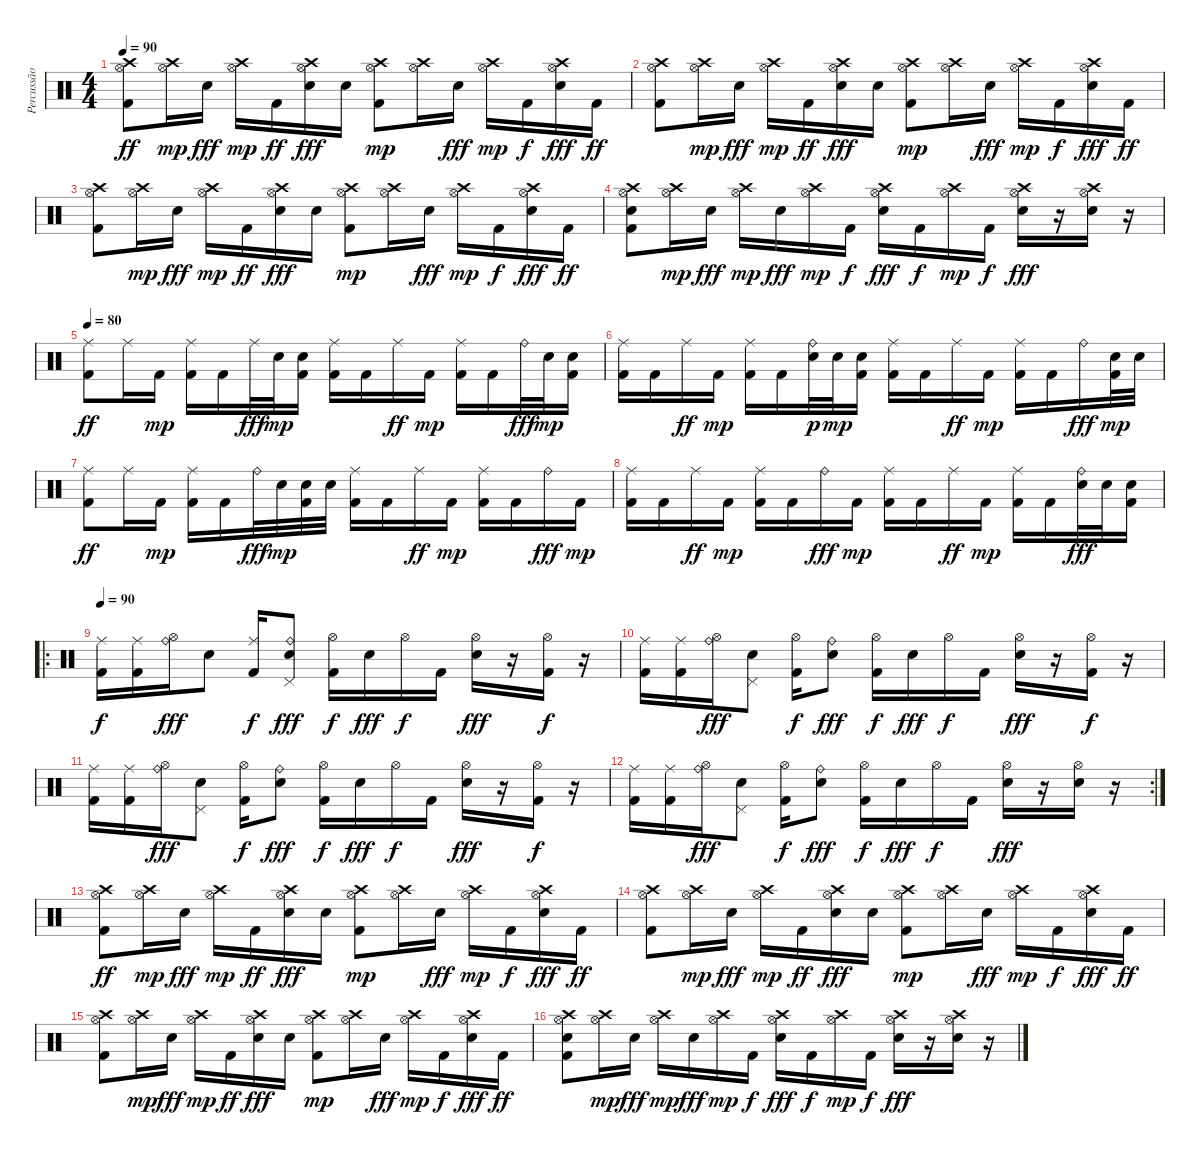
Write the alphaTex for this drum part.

\track ("Percussão" "Percussão") {instrument percussion}
\staff {score}
\articulation defaults
\ts (4 4)
\tempo 90
\clef neutral
\ks c
("Hi-Hat (open)" "Crash high (hit)" "Kick (hit) 2").8{dy ff} ("Hi-Hat (open)" "Crash high (hit)").16{dy mp} "Electric Snare (hit)".16{dy fff} ("Hi-Hat (open)" "Crash high (hit)").16{dy mp} "Kick (hit) 2".16{dy ff} ("Hi-Hat (open)" "Crash high (hit)" "Electric Snare (hit)").16{dy fff} "Electric Snare (hit)".16 ("Hi-Hat (open)" "Crash high (hit)" "Kick (hit) 2").8{dy mp} ("Hi-Hat (open)" "Crash high (hit)").16 "Electric Snare (hit)".16{dy fff} ("Hi-Hat (open)" "Crash high (hit)").16{dy mp} "Kick (hit) 2".16{dy f} ("Hi-Hat (open)" "Crash high (hit)" "Electric Snare (hit)").16{dy fff} "Kick (hit) 2".16{dy ff} |
("Hi-Hat (open)" "Crash high (hit)" "Kick (hit) 2").8 ("Hi-Hat (open)" "Crash high (hit)").16{dy mp} "Electric Snare (hit)".16{dy fff} ("Hi-Hat (open)" "Crash high (hit)").16{dy mp} "Kick (hit) 2".16{dy ff} ("Hi-Hat (open)" "Crash high (hit)" "Electric Snare (hit)").16{dy fff} "Electric Snare (hit)".16 ("Hi-Hat (open)" "Crash high (hit)" "Kick (hit) 2").8{dy mp} ("Hi-Hat (open)" "Crash high (hit)").16 "Electric Snare (hit)".16{dy fff} ("Hi-Hat (open)" "Crash high (hit)").16{dy mp} "Kick (hit) 2".16{dy f} ("Hi-Hat (open)" "Crash high (hit)" "Electric Snare (hit)").16{dy fff} "Kick (hit) 2".16{dy ff} |
("Hi-Hat (open)" "Crash high (hit)" "Kick (hit) 2").8 ("Hi-Hat (open)" "Crash high (hit)").16{dy mp} "Electric Snare (hit)".16{dy fff} ("Hi-Hat (open)" "Crash high (hit)").16{dy mp} "Kick (hit) 2".16{dy ff} ("Hi-Hat (open)" "Crash high (hit)" "Electric Snare (hit)").16{dy fff} "Electric Snare (hit)".16 ("Hi-Hat (open)" "Crash high (hit)" "Kick (hit) 2").8{dy mp} ("Hi-Hat (open)" "Crash high (hit)").16 "Electric Snare (hit)".16{dy fff} ("Hi-Hat (open)" "Crash high (hit)").16{dy mp} "Kick (hit) 2".16{dy f} ("Hi-Hat (open)" "Crash high (hit)" "Electric Snare (hit)").16{dy fff} "Kick (hit) 2".16{dy ff} |
("Hi-Hat (open)" "Crash high (hit)" "Electric Snare (hit)" "Kick (hit) 2").8 ("Hi-Hat (open)" "Crash high (hit)").16{dy mp} "Electric Snare (hit)".16{dy fff} ("Hi-Hat (open)" "Crash high (hit)").16{dy mp} "Electric Snare (hit)".16{dy fff} ("Hi-Hat (open)" "Crash high (hit)").16{dy mp} "Kick (hit) 2".16{dy f} ("Hi-Hat (open)" "Crash high (hit)" "Electric Snare (hit)").16{dy fff} "Kick (hit) 2".16{dy f} ("Hi-Hat (open)" "Crash high (hit)").16{dy mp} "Kick (hit) 2".16{dy f} ("Hi-Hat (open)" "Crash high (hit)" "Electric Snare (hit)").16{dy fff} r.16 ("Hi-Hat (open)" "Crash high (hit)" "Electric Snare (hit)").16 r.16 |
\tempo 80
("Ride (middle)" "Kick (hit) 2").8{dy ff} "Ride (middle)".16 "Kick (hit) 2".16{dy mp} ("Ride (middle)" "Kick (hit) 2").16 "Kick (hit) 2".16 "Ride (middle)".32{dy fff} "Electric Snare (hit)".32{dy mp} ("Electric Snare (hit)" "Kick (hit) 2").16 ("Ride (middle)" "Kick (hit) 2").16 "Kick (hit) 2".16 "Ride (middle)".16{dy ff} "Kick (hit) 2".16{dy mp} ("Ride (middle)" "Kick (hit) 2").16 "Kick (hit) 2".16 "Ride (bell)".32{dy fff} "Electric Snare (hit)".32{dy mp} ("Electric Snare (hit)" "Kick (hit) 2").16 |
("Ride (middle)" "Kick (hit) 2").16 "Kick (hit) 2".16 "Ride (middle)".16{dy ff} "Kick (hit) 2".16{dy mp} ("Ride (middle)" "Kick (hit) 2").16 "Kick (hit) 2".16 ("Ride (bell)" "Electric Snare (hit)").32{dy p} "Electric Snare (hit)".32{dy mp} ("Electric Snare (hit)" "Kick (hit) 2").16 ("Ride (middle)" "Kick (hit) 2").16 "Kick (hit) 2".16 "Ride (middle)".16{dy ff} "Kick (hit) 2".16{dy mp} ("Ride (middle)" "Kick (hit) 2").16 "Kick (hit) 2".16 "Ride (bell)".16{dy fff} ("Electric Snare (hit)" "Kick (hit) 2").32{dy mp} "Electric Snare (hit)".32 |
("Ride (middle)" "Kick (hit) 2").8{dy ff} "Ride (middle)".16 "Kick (hit) 2".16{dy mp} ("Ride (middle)" "Kick (hit) 2").16 "Kick (hit) 2".16 "Ride (bell)".32{dy fff} "Electric Snare (hit)".32{dy mp} ("Electric Snare (hit)" "Kick (hit) 2").32 "Electric Snare (hit)".32 ("Ride (middle)" "Kick (hit) 2").16 "Kick (hit) 2".16 "Ride (middle)".16{dy ff} "Kick (hit) 2".16{dy mp} ("Ride (middle)" "Kick (hit) 2").16 "Kick (hit) 2".16 "Ride (bell)".16{dy fff} "Kick (hit) 2".16{dy mp} |
("Ride (middle)" "Kick (hit) 2").16 "Kick (hit) 2".16 "Ride (middle)".16{dy ff} "Kick (hit) 2".16{dy mp} ("Ride (middle)" "Kick (hit) 2").16 "Kick (hit) 2".16 "Ride (bell)".16{dy fff} "Kick (hit) 2".16{dy mp} ("Ride (middle)" "Kick (hit) 2").16 "Kick (hit) 2".16 "Ride (middle)".16{dy ff} "Kick (hit) 2".16{dy mp} ("Ride (middle)" "Kick (hit) 2").16 "Kick (hit) 2".16 ("Ride (bell)" "Electric Snare (hit)").32{dy fff} "Electric Snare (hit)".32 ("Electric Snare (hit)" "Kick (hit) 2").16 |
\ro
\tempo 90
("Ride (middle)" "Kick (hit) 2").16{dy f} ("Ride (middle)" "Kick (hit) 2").16 ("Ride (bell)" "Hi-Hat (open)").16{dy fff} "Electric Snare (hit)".8 ("Ride (middle)" "Kick (hit) 2").16{dy f} ("Ride (bell)" "Pedal Hi-Hat (hit)" "Electric Snare (hit)").8{dy fff} ("Hi-Hat (open)" "Kick (hit) 2").16{dy f} "Electric Snare (hit)".16{dy fff} "Hi-Hat (open)".16{dy f} "Kick (hit) 2".16 ("Hi-Hat (open)" "Electric Snare (hit)").16{dy fff} r.16 ("Hi-Hat (open)" "Kick (hit) 2").16{dy f} r.16 |
("Ride (middle)" "Kick (hit) 2").16 ("Ride (middle)" "Kick (hit) 2").16 ("Ride (bell)" "Hi-Hat (open)").16{dy fff} ("Pedal Hi-Hat (hit)" "Electric Snare (hit)").8 ("Hi-Hat (open)" "Kick (hit) 2").16{dy f} ("Ride (bell)" "Electric Snare (hit)").8{dy fff} ("Hi-Hat (open)" "Kick (hit) 2").16{dy f} "Electric Snare (hit)".16{dy fff} "Hi-Hat (open)".16{dy f} "Kick (hit) 2".16 ("Hi-Hat (open)" "Electric Snare (hit)").16{dy fff} r.16 ("Hi-Hat (open)" "Kick (hit) 2").16{dy f} r.16 |
("Ride (middle)" "Kick (hit) 2").16 ("Ride (middle)" "Kick (hit) 2").16 ("Ride (bell)" "Hi-Hat (open)").16{dy fff} ("Pedal Hi-Hat (hit)" "Electric Snare (hit)").8 ("Hi-Hat (open)" "Kick (hit) 2").16{dy f} ("Ride (bell)" "Electric Snare (hit)").8{dy fff} ("Hi-Hat (open)" "Kick (hit) 2").16{dy f} "Electric Snare (hit)".16{dy fff} "Hi-Hat (open)".16{dy f} "Kick (hit) 2".16 ("Hi-Hat (open)" "Electric Snare (hit)").16{dy fff} r.16 ("Hi-Hat (open)" "Kick (hit) 2").16{dy f} r.16 |
\rc 2
("Ride (middle)" "Kick (hit) 2").16 ("Ride (middle)" "Kick (hit) 2").16 ("Ride (bell)" "Hi-Hat (open)").16{dy fff} ("Pedal Hi-Hat (hit)" "Electric Snare (hit)").8 ("Hi-Hat (open)" "Kick (hit) 2").16{dy f} ("Ride (bell)" "Electric Snare (hit)").8{dy fff} ("Hi-Hat (open)" "Kick (hit) 2").16{dy f} "Electric Snare (hit)".16{dy fff} "Hi-Hat (open)".16{dy f} "Kick (hit) 2".16 ("Hi-Hat (open)" "Electric Snare (hit)").16{dy fff} r.16 ("Hi-Hat (open)" "Electric Snare (hit)").16 r.16 |
("Hi-Hat (open)" "Crash high (hit)" "Kick (hit) 2").8{dy ff} ("Hi-Hat (open)" "Crash high (hit)").16{dy mp} "Electric Snare (hit)".16{dy fff} ("Hi-Hat (open)" "Crash high (hit)").16{dy mp} "Kick (hit) 2".16{dy ff} ("Hi-Hat (open)" "Crash high (hit)" "Electric Snare (hit)").16{dy fff} "Electric Snare (hit)".16 ("Hi-Hat (open)" "Crash high (hit)" "Kick (hit) 2").8{dy mp} ("Hi-Hat (open)" "Crash high (hit)").16 "Electric Snare (hit)".16{dy fff} ("Hi-Hat (open)" "Crash high (hit)").16{dy mp} "Kick (hit) 2".16{dy f} ("Hi-Hat (open)" "Crash high (hit)" "Electric Snare (hit)").16{dy fff} "Kick (hit) 2".16{dy ff} |
("Hi-Hat (open)" "Crash high (hit)" "Kick (hit) 2").8 ("Hi-Hat (open)" "Crash high (hit)").16{dy mp} "Electric Snare (hit)".16{dy fff} ("Hi-Hat (open)" "Crash high (hit)").16{dy mp} "Kick (hit) 2".16{dy ff} ("Hi-Hat (open)" "Crash high (hit)" "Electric Snare (hit)").16{dy fff} "Electric Snare (hit)".16 ("Hi-Hat (open)" "Crash high (hit)" "Kick (hit) 2").8{dy mp} ("Hi-Hat (open)" "Crash high (hit)").16 "Electric Snare (hit)".16{dy fff} ("Hi-Hat (open)" "Crash high (hit)").16{dy mp} "Kick (hit) 2".16{dy f} ("Hi-Hat (open)" "Crash high (hit)" "Electric Snare (hit)").16{dy fff} "Kick (hit) 2".16{dy ff} |
("Hi-Hat (open)" "Crash high (hit)" "Kick (hit) 2").8 ("Hi-Hat (open)" "Crash high (hit)").16{dy mp} "Electric Snare (hit)".16{dy fff} ("Hi-Hat (open)" "Crash high (hit)").16{dy mp} "Kick (hit) 2".16{dy ff} ("Hi-Hat (open)" "Crash high (hit)" "Electric Snare (hit)").16{dy fff} "Electric Snare (hit)".16 ("Hi-Hat (open)" "Crash high (hit)" "Kick (hit) 2").8{dy mp} ("Hi-Hat (open)" "Crash high (hit)").16 "Electric Snare (hit)".16{dy fff} ("Hi-Hat (open)" "Crash high (hit)").16{dy mp} "Kick (hit) 2".16{dy f} ("Hi-Hat (open)" "Crash high (hit)" "Electric Snare (hit)").16{dy fff} "Kick (hit) 2".16{dy ff} |
("Hi-Hat (open)" "Crash high (hit)" "Electric Snare (hit)" "Kick (hit) 2").8 ("Hi-Hat (open)" "Crash high (hit)").16{dy mp} "Electric Snare (hit)".16{dy fff} ("Hi-Hat (open)" "Crash high (hit)").16{dy mp} "Electric Snare (hit)".16{dy fff} ("Hi-Hat (open)" "Crash high (hit)").16{dy mp} "Kick (hit) 2".16{dy f} ("Hi-Hat (open)" "Crash high (hit)" "Electric Snare (hit)").16{dy fff} "Kick (hit) 2".16{dy f} ("Hi-Hat (open)" "Crash high (hit)").16{dy mp} "Kick (hit) 2".16{dy f} ("Hi-Hat (open)" "Crash high (hit)" "Electric Snare (hit)").16{dy fff} r.16 ("Hi-Hat (open)" "Crash high (hit)" "Electric Snare (hit)").16 r.16
